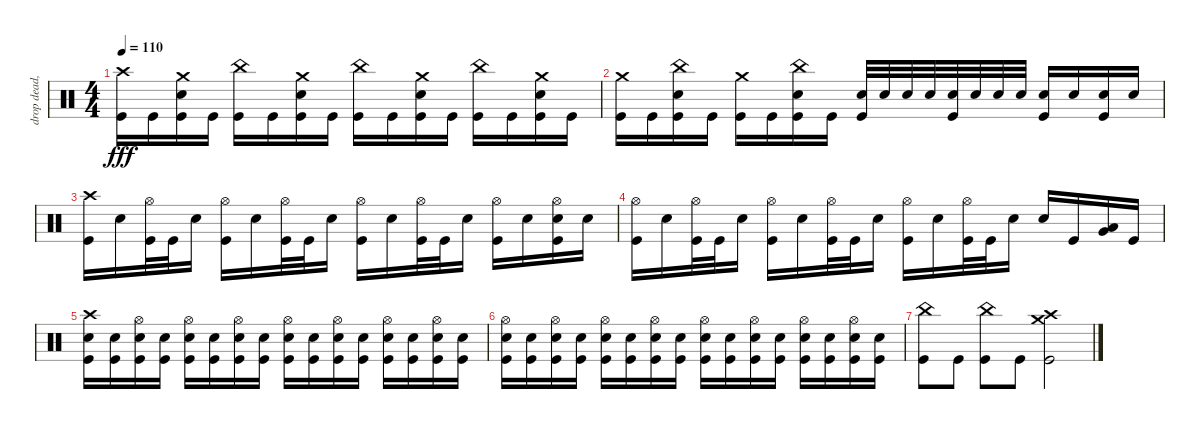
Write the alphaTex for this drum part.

\track ("drop dead, johnny" "drop dead,") {instrument percussion}
\staff {score}
\articulation defaults
\ts (4 4)
\tempo 110
\clef neutral
\ks c
("Crash high (hit)" "Kick (hit)").16{dy fff} "Kick (hit)".16 ("Crash medium (hit)" "Electric Snare (hit)" "Kick (hit)").16 "Kick (hit)".16 ("China (hit)" "Kick (hit)").16 "Kick (hit)".16 ("Crash medium (hit)" "Electric Snare (hit)" "Kick (hit)").16 "Kick (hit)".16 ("China (hit)" "Kick (hit)").16 "Kick (hit)".16 ("Crash medium (hit)" "Electric Snare (hit)" "Kick (hit)").16 "Kick (hit)".16 ("China (hit)" "Kick (hit)").16 "Kick (hit)".16 ("Crash medium (hit)" "Electric Snare (hit)" "Kick (hit)").16 "Kick (hit)".16 |
("Crash medium (hit)" "Kick (hit)").16 "Kick (hit)".16 ("China (hit)" "Electric Snare (hit)" "Kick (hit)").16 "Kick (hit)".16 ("Crash medium (hit)" "Kick (hit)").16 "Kick (hit)".16 ("China (hit)" "Electric Snare (hit)" "Kick (hit)").16 "Kick (hit)".16 ("Electric Snare (hit)" "Kick (hit)").32 "Electric Snare (hit)".32 "Electric Snare (hit)".32 "Electric Snare (hit)".32 ("Electric Snare (hit)" "Kick (hit)").32 "Electric Snare (hit)".32 "Electric Snare (hit)".32 "Electric Snare (hit)".32 ("Electric Snare (hit)" "Kick (hit)").16 "Electric Snare (hit)".16 ("Electric Snare (hit)" "Kick (hit)").16 "Electric Snare (hit)".16 |
("Crash high (hit)" "Kick (hit)").16 "Electric Snare (hit)".16 ("Hi-Hat (open)" "Kick (hit)").32 "Kick (hit)".32 "Electric Snare (hit)".16 ("Hi-Hat (open)" "Kick (hit)").16 "Electric Snare (hit)".16 ("Hi-Hat (open)" "Kick (hit)").32 "Kick (hit)".32 "Electric Snare (hit)".16 ("Hi-Hat (open)" "Kick (hit)").16 "Electric Snare (hit)".16 ("Hi-Hat (open)" "Kick (hit)").32 "Kick (hit)".32 "Electric Snare (hit)".16 ("Hi-Hat (open)" "Kick (hit)").16 "Electric Snare (hit)".16 ("Hi-Hat (open)" "Electric Snare (hit)" "Kick (hit)").16 "Electric Snare (hit)".16 |
("Hi-Hat (open)" "Kick (hit)").16 "Electric Snare (hit)".16 ("Hi-Hat (open)" "Kick (hit)").32 "Kick (hit)".32 "Electric Snare (hit)".16 ("Hi-Hat (open)" "Kick (hit)").16 "Electric Snare (hit)".16 ("Hi-Hat (open)" "Kick (hit)").32 "Kick (hit)".32 "Electric Snare (hit)".16 ("Hi-Hat (open)" "Kick (hit)").16 "Electric Snare (hit)".16 ("Hi-Hat (open)" "Kick (hit)").32 "Kick (hit)".32 "Electric Snare (hit)".16 "Electric Snare (hit)".16 "Kick (hit)".16 ("Very Low Tom (hit)" "Low Floor Tom (hit)").16 "Kick (hit)".16 |
("Crash high (hit)" "Electric Snare (hit)" "Kick (hit)").16 ("Electric Snare (hit)" "Kick (hit)").16 ("Hi-Hat (open)" "Electric Snare (hit)" "Kick (hit)").16 ("Electric Snare (hit)" "Kick (hit)").16 ("Hi-Hat (open)" "Electric Snare (hit)" "Kick (hit)").16 ("Electric Snare (hit)" "Kick (hit)").16 ("Hi-Hat (open)" "Electric Snare (hit)" "Kick (hit)").16 ("Electric Snare (hit)" "Kick (hit)").16 ("Hi-Hat (open)" "Electric Snare (hit)" "Kick (hit)").16 ("Electric Snare (hit)" "Kick (hit)").16 ("Hi-Hat (open)" "Electric Snare (hit)" "Kick (hit)").16 ("Electric Snare (hit)" "Kick (hit)").16 ("Hi-Hat (open)" "Electric Snare (hit)" "Kick (hit)").16 ("Electric Snare (hit)" "Kick (hit)").16 ("Hi-Hat (open)" "Electric Snare (hit)" "Kick (hit)").16 ("Electric Snare (hit)" "Kick (hit)").16 |
("Hi-Hat (open)" "Electric Snare (hit)" "Kick (hit)").16 ("Electric Snare (hit)" "Kick (hit)").16 ("Hi-Hat (open)" "Electric Snare (hit)" "Kick (hit)").16 ("Electric Snare (hit)" "Kick (hit)").16 ("Hi-Hat (open)" "Electric Snare (hit)" "Kick (hit)").16 ("Electric Snare (hit)" "Kick (hit)").16 ("Hi-Hat (open)" "Electric Snare (hit)" "Kick (hit)").16 ("Electric Snare (hit)" "Kick (hit)").16 ("Hi-Hat (open)" "Electric Snare (hit)" "Kick (hit)").16 ("Electric Snare (hit)" "Kick (hit)").16 ("Hi-Hat (open)" "Electric Snare (hit)" "Kick (hit)").16 ("Electric Snare (hit)" "Kick (hit)").16 ("Hi-Hat (open)" "Electric Snare (hit)" "Kick (hit)").16 ("Electric Snare (hit)" "Kick (hit)").16 ("Hi-Hat (open)" "Electric Snare (hit)" "Kick (hit)").16 ("Electric Snare (hit)" "Kick (hit)").16 |
("China (hit)" "Kick (hit)").8 "Kick (hit)".8 ("China (hit)" "Kick (hit)").8 "Kick (hit)".8 ("Crash high (hit)" "Crash medium (hit)" "Kick (hit)").2
